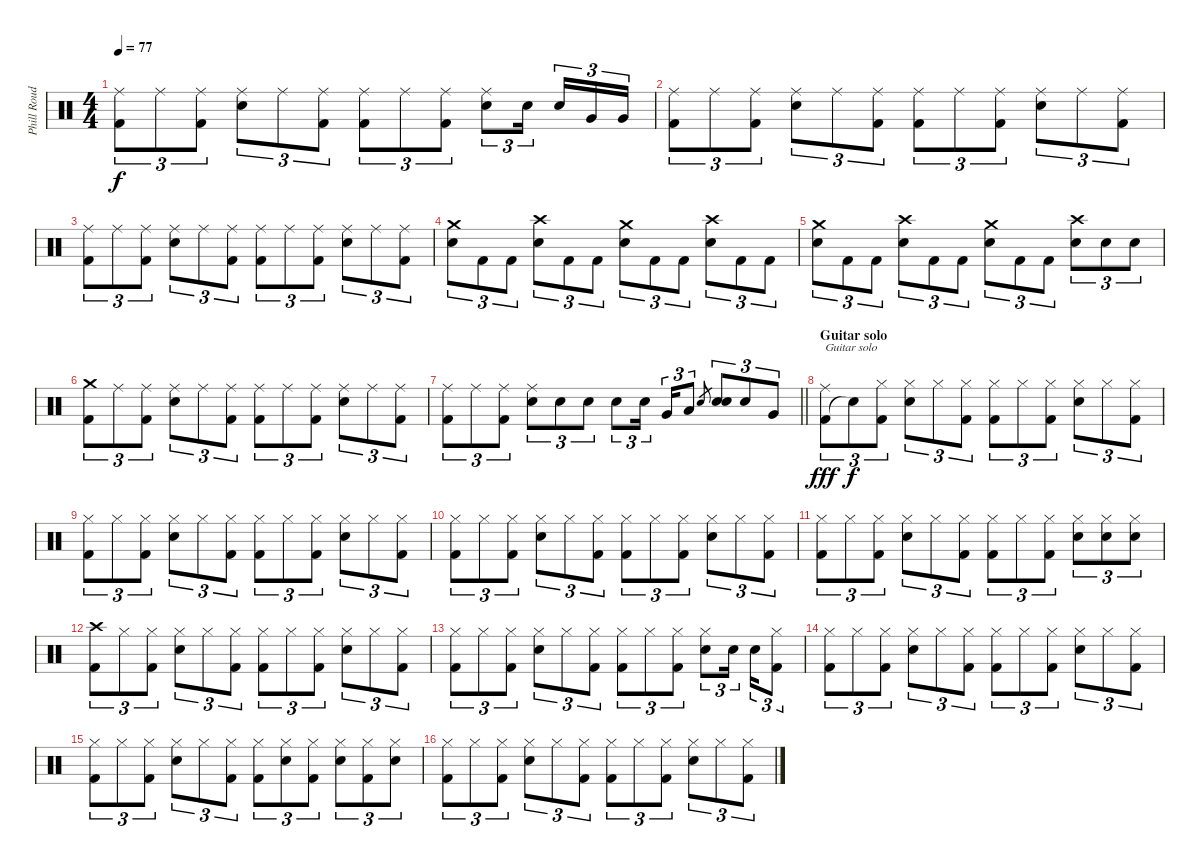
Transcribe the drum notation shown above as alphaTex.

\track ("Phill Roud" "Phill Roud") {instrument percussion}
\staff {score}
\articulation defaults
\ts (4 4)
\tempo 77
\clef neutral
\ks c
("Kick (hit) 2" "Ride (middle)").8{tu (3 2) dy f} "Ride (middle)".8{tu (3 2)} ("Kick (hit) 2" "Ride (middle)").8{tu (3 2)} ("Electric Snare (hit)" "Ride (middle)").8{tu (3 2)} "Ride (middle)".8{tu (3 2)} ("Kick (hit) 2" "Ride (middle)").8{tu (3 2)} ("Kick (hit) 2" "Ride (middle)").8{tu (3 2)} "Ride (middle)".8{tu (3 2)} ("Kick (hit) 2" "Ride (middle)").8{tu (3 2)} ("Electric Snare (hit)" "Ride (middle)").8{tu (3 2)} "Electric Snare (hit)".16{tu (3 2) beam splitsecondary} "Electric Snare (hit)".16{tu (3 2)} "Very Low Tom (hit)".16{tu (3 2)} "Very Low Tom (hit)".16{tu (3 2)} |
("Kick (hit) 2" "Ride (middle)").8{tu (3 2)} "Ride (middle)".8{tu (3 2)} ("Kick (hit) 2" "Ride (middle)").8{tu (3 2)} ("Electric Snare (hit)" "Ride (middle)").8{tu (3 2)} "Ride (middle)".8{tu (3 2)} ("Kick (hit) 2" "Ride (middle)").8{tu (3 2)} ("Kick (hit) 2" "Ride (middle)").8{tu (3 2)} "Ride (middle)".8{tu (3 2)} ("Kick (hit) 2" "Ride (middle)").8{tu (3 2)} ("Electric Snare (hit)" "Ride (middle)").8{tu (3 2)} "Ride (middle)".8{tu (3 2)} ("Kick (hit) 2" "Ride (middle)").8{tu (3 2)} |
("Kick (hit) 2" "Ride (middle)").8{tu (3 2)} "Ride (middle)".8{tu (3 2)} ("Kick (hit) 2" "Ride (middle)").8{tu (3 2)} ("Electric Snare (hit)" "Ride (middle)").8{tu (3 2)} "Ride (middle)".8{tu (3 2)} ("Kick (hit) 2" "Ride (middle)").8{tu (3 2)} ("Kick (hit) 2" "Ride (middle)").8{tu (3 2)} "Ride (middle)".8{tu (3 2)} ("Kick (hit) 2" "Ride (middle)").8{tu (3 2)} ("Electric Snare (hit)" "Ride (middle)").8{tu (3 2)} "Ride (middle)".8{tu (3 2)} ("Kick (hit) 2" "Ride (middle)").8{tu (3 2)} |
("Electric Snare (hit)" "Crash medium (hit)").8{tu (3 2)} "Kick (hit) 2".8{tu (3 2)} "Kick (hit) 2".8{tu (3 2)} ("Electric Snare (hit)" "Crash high (hit)").8{tu (3 2)} "Kick (hit) 2".8{tu (3 2)} "Kick (hit) 2".8{tu (3 2)} ("Electric Snare (hit)" "Crash medium (hit)").8{tu (3 2)} "Kick (hit) 2".8{tu (3 2)} "Kick (hit) 2".8{tu (3 2)} ("Electric Snare (hit)" "Crash high (hit)").8{tu (3 2)} "Kick (hit) 2".8{tu (3 2)} "Kick (hit) 2".8{tu (3 2)} |
("Electric Snare (hit)" "Crash medium (hit)").8{tu (3 2)} "Kick (hit) 2".8{tu (3 2)} "Kick (hit) 2".8{tu (3 2)} ("Electric Snare (hit)" "Crash high (hit)").8{tu (3 2)} "Kick (hit) 2".8{tu (3 2)} "Kick (hit) 2".8{tu (3 2)} ("Electric Snare (hit)" "Crash medium (hit)").8{tu (3 2)} "Kick (hit) 2".8{tu (3 2)} "Kick (hit) 2".8{tu (3 2)} ("Electric Snare (hit)" "Crash high (hit)").8{tu (3 2)} "Electric Snare (hit)".8{tu (3 2)} "Electric Snare (hit)".8{tu (3 2)} |
("Kick (hit) 2" "Crash medium (hit)").8{tu (3 2)} "Ride (middle)".8{tu (3 2)} ("Kick (hit) 2" "Ride (middle)").8{tu (3 2)} ("Electric Snare (hit)" "Ride (middle)").8{tu (3 2)} "Ride (middle)".8{tu (3 2)} ("Kick (hit) 2" "Ride (middle)").8{tu (3 2)} ("Kick (hit) 2" "Ride (middle)").8{tu (3 2)} "Ride (middle)".8{tu (3 2)} ("Kick (hit) 2" "Ride (middle)").8{tu (3 2)} ("Electric Snare (hit)" "Ride (middle)").8{tu (3 2)} "Ride (middle)".8{tu (3 2)} ("Kick (hit) 2" "Ride (middle)").8{tu (3 2)} |
\barLineRight lightlight
("Kick (hit) 2" "Ride (middle)").8{tu (3 2)} "Ride (middle)".8{tu (3 2)} ("Kick (hit) 2" "Ride (middle)").8{tu (3 2)} ("Electric Snare (hit)" "Ride (middle)").8{tu (3 2)} "Electric Snare (hit)".8{tu (3 2)} "Electric Snare (hit)".8{tu (3 2)} "Electric Snare (hit)".8{tu (3 2)} "Electric Snare (hit)".16{tu (3 2) beam splitsecondary} "Very Low Tom (hit)".16{tu (3 2)} "Low Floor Tom (hit)".8{tu (3 2)} "Electric Snare (hit)".8{gr} ("Electric Snare (hit)" "Electric Snare (hit)").8{tu (3 2)} "Electric Snare (hit)".8{tu (3 2)} "Very Low Tom (hit)".8{tu (3 2)} |
\section ("" "Guitar solo")
("Kick (hit) 2" "Ride (middle)").8{tu (3 2) txt "Guitar solo" dy fff} "Snare (hit)"{t}.8{tu (3 2) dy f} ("Kick (hit) 2" "Hi-Hat (closed)").8{tu (3 2)} ("Electric Snare (hit)" "Hi-Hat (closed)").8{tu (3 2)} "Hi-Hat (closed)".8{tu (3 2)} ("Kick (hit) 2" "Hi-Hat (closed)").8{tu (3 2)} ("Kick (hit) 2" "Hi-Hat (closed)").8{tu (3 2)} "Hi-Hat (closed)".8{tu (3 2)} ("Kick (hit) 2" "Hi-Hat (closed)").8{tu (3 2)} ("Electric Snare (hit)" "Hi-Hat (closed)").8{tu (3 2)} "Hi-Hat (closed)".8{tu (3 2)} ("Kick (hit) 2" "Hi-Hat (closed)").8{tu (3 2)} |
("Kick (hit) 2" "Hi-Hat (closed)").8{tu (3 2)} "Hi-Hat (closed)".8{tu (3 2)} ("Kick (hit) 2" "Hi-Hat (closed)").8{tu (3 2)} ("Electric Snare (hit)" "Hi-Hat (closed)").8{tu (3 2)} "Hi-Hat (closed)".8{tu (3 2)} ("Kick (hit) 2" "Hi-Hat (closed)").8{tu (3 2)} ("Kick (hit) 2" "Hi-Hat (closed)").8{tu (3 2)} "Hi-Hat (closed)".8{tu (3 2)} ("Kick (hit) 2" "Hi-Hat (closed)").8{tu (3 2)} ("Electric Snare (hit)" "Hi-Hat (closed)").8{tu (3 2)} "Hi-Hat (closed)".8{tu (3 2)} ("Kick (hit) 2" "Hi-Hat (closed)").8{tu (3 2)} |
("Kick (hit) 2" "Hi-Hat (closed)").8{tu (3 2)} "Hi-Hat (closed)".8{tu (3 2)} ("Kick (hit) 2" "Hi-Hat (closed)").8{tu (3 2)} ("Electric Snare (hit)" "Hi-Hat (closed)").8{tu (3 2)} "Hi-Hat (closed)".8{tu (3 2)} ("Kick (hit) 2" "Hi-Hat (closed)").8{tu (3 2)} ("Kick (hit) 2" "Hi-Hat (closed)").8{tu (3 2)} "Hi-Hat (closed)".8{tu (3 2)} ("Kick (hit) 2" "Hi-Hat (closed)").8{tu (3 2)} ("Electric Snare (hit)" "Hi-Hat (closed)").8{tu (3 2)} "Hi-Hat (closed)".8{tu (3 2)} ("Kick (hit) 2" "Hi-Hat (closed)").8{tu (3 2)} |
("Kick (hit) 2" "Hi-Hat (closed)").8{tu (3 2)} "Hi-Hat (closed)".8{tu (3 2)} ("Kick (hit) 2" "Hi-Hat (closed)").8{tu (3 2)} ("Electric Snare (hit)" "Hi-Hat (closed)").8{tu (3 2)} "Hi-Hat (closed)".8{tu (3 2)} ("Kick (hit) 2" "Hi-Hat (closed)").8{tu (3 2)} ("Kick (hit) 2" "Hi-Hat (closed)").8{tu (3 2)} "Hi-Hat (closed)".8{tu (3 2)} ("Kick (hit) 2" "Hi-Hat (closed)").8{tu (3 2)} ("Electric Snare (hit)" "Hi-Hat (closed)").8{tu (3 2)} ("Electric Snare (hit)" "Hi-Hat (closed)").8{tu (3 2)} ("Electric Snare (hit)" "Hi-Hat (closed)").8{tu (3 2)} |
("Kick (hit) 2" "Crash high (hit)").8{tu (3 2)} "Hi-Hat (closed)".8{tu (3 2)} ("Kick (hit) 2" "Hi-Hat (closed)").8{tu (3 2)} ("Electric Snare (hit)" "Hi-Hat (closed)").8{tu (3 2)} "Hi-Hat (closed)".8{tu (3 2)} ("Kick (hit) 2" "Hi-Hat (closed)").8{tu (3 2)} ("Kick (hit) 2" "Hi-Hat (closed)").8{tu (3 2)} "Hi-Hat (closed)".8{tu (3 2)} ("Kick (hit) 2" "Hi-Hat (closed)").8{tu (3 2)} ("Electric Snare (hit)" "Hi-Hat (closed)").8{tu (3 2)} "Hi-Hat (closed)".8{tu (3 2)} ("Kick (hit) 2" "Hi-Hat (closed)").8{tu (3 2)} |
("Kick (hit) 2" "Hi-Hat (closed)").8{tu (3 2)} "Hi-Hat (closed)".8{tu (3 2)} ("Kick (hit) 2" "Hi-Hat (closed)").8{tu (3 2)} ("Electric Snare (hit)" "Hi-Hat (closed)").8{tu (3 2)} "Hi-Hat (closed)".8{tu (3 2)} ("Kick (hit) 2" "Hi-Hat (closed)").8{tu (3 2)} ("Kick (hit) 2" "Hi-Hat (closed)").8{tu (3 2)} "Hi-Hat (closed)".8{tu (3 2)} ("Kick (hit) 2" "Hi-Hat (closed)").8{tu (3 2)} ("Electric Snare (hit)" "Hi-Hat (closed)").8{tu (3 2)} "Electric Snare (hit)".16{tu (3 2) beam splitsecondary} "Electric Snare (hit)".16{tu (3 2)} ("Kick (hit) 2" "Hi-Hat (closed)").8{tu (3 2)} |
("Kick (hit) 2" "Hi-Hat (closed)").8{tu (3 2)} "Hi-Hat (closed)".8{tu (3 2)} ("Kick (hit) 2" "Hi-Hat (closed)").8{tu (3 2)} ("Electric Snare (hit)" "Hi-Hat (closed)").8{tu (3 2)} "Hi-Hat (closed)".8{tu (3 2)} ("Kick (hit) 2" "Hi-Hat (closed)").8{tu (3 2)} ("Kick (hit) 2" "Hi-Hat (closed)").8{tu (3 2)} "Hi-Hat (closed)".8{tu (3 2)} ("Kick (hit) 2" "Hi-Hat (closed)").8{tu (3 2)} ("Electric Snare (hit)" "Hi-Hat (closed)").8{tu (3 2)} "Hi-Hat (closed)".8{tu (3 2)} ("Kick (hit) 2" "Hi-Hat (closed)").8{tu (3 2)} |
("Kick (hit) 2" "Hi-Hat (closed)").8{tu (3 2)} "Hi-Hat (closed)".8{tu (3 2)} ("Kick (hit) 2" "Hi-Hat (closed)").8{tu (3 2)} ("Electric Snare (hit)" "Hi-Hat (closed)").8{tu (3 2)} "Hi-Hat (closed)".8{tu (3 2)} ("Kick (hit) 2" "Hi-Hat (closed)").8{tu (3 2)} ("Kick (hit) 2" "Hi-Hat (closed)").8{tu (3 2)} ("Electric Snare (hit)" "Hi-Hat (closed)").8{tu (3 2)} ("Kick (hit) 2" "Hi-Hat (closed)").8{tu (3 2)} ("Electric Snare (hit)" "Hi-Hat (closed)").8{tu (3 2)} ("Kick (hit) 2" "Hi-Hat (closed)").8{tu (3 2)} ("Electric Snare (hit)" "Hi-Hat (closed)").8{tu (3 2)} |
("Kick (hit) 2" "Hi-Hat (closed)").8{tu (3 2)} "Hi-Hat (closed)".8{tu (3 2)} ("Kick (hit) 2" "Hi-Hat (closed)").8{tu (3 2)} ("Electric Snare (hit)" "Hi-Hat (closed)").8{tu (3 2)} "Hi-Hat (closed)".8{tu (3 2)} ("Kick (hit) 2" "Hi-Hat (closed)").8{tu (3 2)} ("Kick (hit) 2" "Hi-Hat (closed)").8{tu (3 2)} "Hi-Hat (closed)".8{tu (3 2)} ("Kick (hit) 2" "Hi-Hat (closed)").8{tu (3 2)} ("Electric Snare (hit)" "Hi-Hat (closed)").8{tu (3 2)} "Hi-Hat (closed)".8{tu (3 2)} ("Kick (hit) 2" "Hi-Hat (closed)").8{tu (3 2)}
